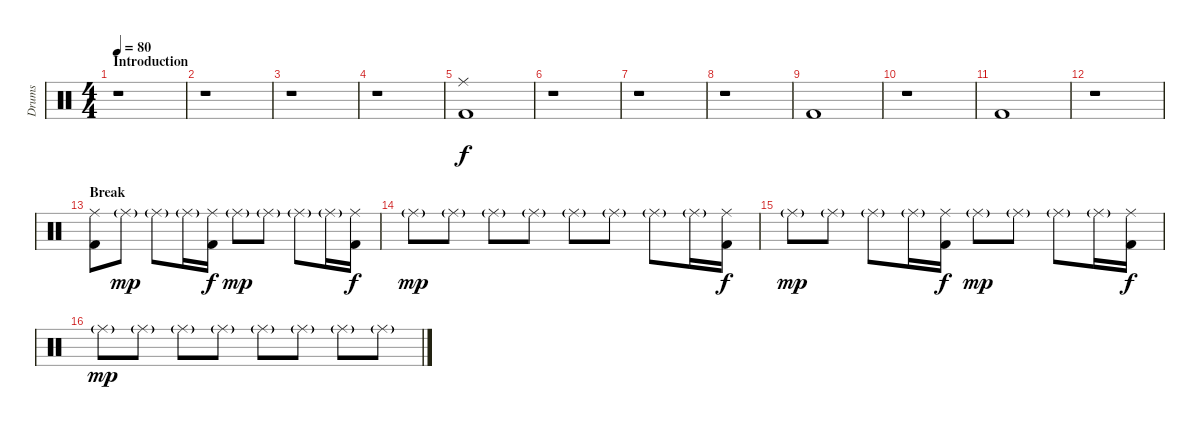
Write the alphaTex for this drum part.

\track ("Drums" "Drums") {instrument percussion}
\staff {score}
\articulation defaults
\ts (4 4)
\section ("" "Introduction")
\tempo 80
\clef neutral
\ks c
r.1{dy f} |
r.1 |
r.1 |
r.1 |
("Ride (middle)" "Kick (hit) 2").1 |
r.1 |
r.1 |
r.1 |
"Kick (hit) 2".1 |
r.1 |
"Kick (hit) 2".1 |
r.1 |
\section ("" "Break")
("Ride (middle)" "Kick (hit) 2").8 "Ride (middle)"{g}.8{dy mp} "Ride (middle)"{g}.8 "Ride (middle)"{g}.16 ("Ride (middle)" "Kick (hit) 2").16{dy f} "Ride (middle)"{g}.8{dy mp} "Ride (middle)"{g}.8 "Ride (middle)"{g}.8 "Ride (middle)"{g}.16 ("Ride (middle)" "Kick (hit) 2").16{dy f} |
"Ride (middle)"{g}.8{dy mp} "Ride (middle)"{g}.8 "Ride (middle)"{g}.8 "Ride (middle)"{g}.8 "Ride (middle)"{g}.8 "Ride (middle)"{g}.8 "Ride (middle)"{g}.8 "Ride (middle)"{g}.16 ("Ride (middle)" "Kick (hit) 2").16{dy f} |
"Ride (middle)"{g}.8{dy mp} "Ride (middle)"{g}.8 "Ride (middle)"{g}.8 "Ride (middle)"{g}.16 ("Ride (middle)" "Kick (hit) 2").16{dy f} "Ride (middle)"{g}.8{dy mp} "Ride (middle)"{g}.8 "Ride (middle)"{g}.8 "Ride (middle)"{g}.16 ("Ride (middle)" "Kick (hit) 2").16{dy f} |
"Ride (middle)"{g}.8{dy mp} "Ride (middle)"{g}.8 "Ride (middle)"{g}.8 "Ride (middle)"{g}.8 "Ride (middle)"{g}.8 "Ride (middle)"{g}.8 "Ride (middle)"{g}.8 "Ride (middle)"{g}.8
